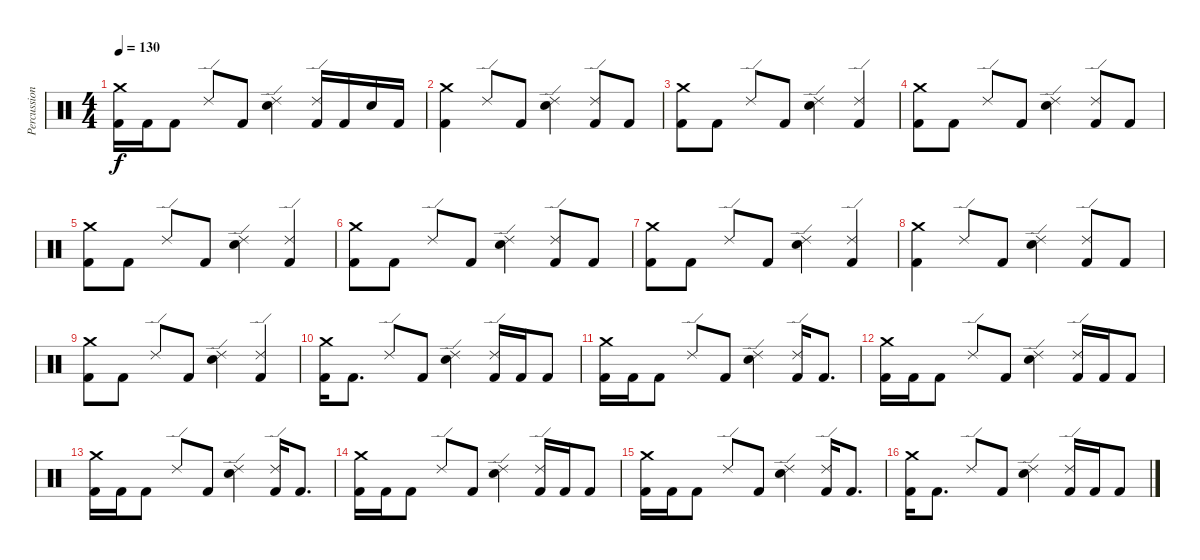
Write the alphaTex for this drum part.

\track ("Percussion" "Percussion") {instrument percussion}
\staff {score}
\articulation defaults
\ts (4 4)
\tempo 130
\clef neutral
\ks c
("Crash medium (hit)" "Kick (hit) 2").16{dy f} "Kick (hit) 2".16 "Kick (hit) 2".8 "Ride (edge) 2".8 "Kick (hit) 2".8 ("Ride (edge) 2" "Electric Snare (hit)").4 ("Ride (edge) 2" "Kick (hit) 2").16 "Kick (hit) 2".16 "Electric Snare (hit)".16 "Kick (hit) 2".16 |
("Crash medium (hit)" "Kick (hit) 2").4 "Ride (edge) 2".8 "Kick (hit) 2".8 ("Ride (edge) 2" "Electric Snare (hit)").4 ("Ride (edge) 2" "Kick (hit) 2").8 "Kick (hit) 2".8 |
("Crash medium (hit)" "Kick (hit) 2").8 "Kick (hit) 2".8 "Ride (edge) 2".8 "Kick (hit) 2".8 ("Ride (edge) 2" "Electric Snare (hit)").4 ("Ride (edge) 2" "Kick (hit) 2").4 |
("Crash medium (hit)" "Kick (hit) 2").8 "Kick (hit) 2".8 "Ride (edge) 2".8 "Kick (hit) 2".8 ("Ride (edge) 2" "Electric Snare (hit)").4 ("Ride (edge) 2" "Kick (hit) 2").8 "Kick (hit) 2".8 |
("Crash medium (hit)" "Kick (hit) 2").8 "Kick (hit) 2".8 "Ride (edge) 2".8 "Kick (hit) 2".8 ("Ride (edge) 2" "Electric Snare (hit)").4 ("Ride (edge) 2" "Kick (hit) 2").4 |
("Crash medium (hit)" "Kick (hit) 2").8 "Kick (hit) 2".8 "Ride (edge) 2".8 "Kick (hit) 2".8 ("Ride (edge) 2" "Electric Snare (hit)").4 ("Ride (edge) 2" "Kick (hit) 2").8 "Kick (hit) 2".8 |
("Crash medium (hit)" "Kick (hit) 2").8 "Kick (hit) 2".8 "Ride (edge) 2".8 "Kick (hit) 2".8 ("Ride (edge) 2" "Electric Snare (hit)").4 ("Ride (edge) 2" "Kick (hit) 2").4 |
("Crash medium (hit)" "Kick (hit) 2").4 "Ride (edge) 2".8 "Kick (hit) 2".8 ("Ride (edge) 2" "Electric Snare (hit)").4 ("Ride (edge) 2" "Kick (hit) 2").8 "Kick (hit) 2".8 |
("Crash medium (hit)" "Kick (hit) 2").8 "Kick (hit) 2".8 "Ride (edge) 2".8 "Kick (hit) 2".8 ("Ride (edge) 2" "Electric Snare (hit)").4 ("Ride (edge) 2" "Kick (hit) 2").4 |
("Crash medium (hit)" "Kick (hit) 2").16 "Kick (hit) 2".8{d} "Ride (edge) 2".8 "Kick (hit) 2".8 ("Ride (edge) 2" "Electric Snare (hit)").4 ("Ride (edge) 2" "Kick (hit) 2").16 "Kick (hit) 2".16 "Kick (hit) 2".8 |
("Crash medium (hit)" "Kick (hit) 2").16 "Kick (hit) 2".16 "Kick (hit) 2".8 "Ride (edge) 2".8 "Kick (hit) 2".8 ("Ride (edge) 2" "Electric Snare (hit)").4 ("Ride (edge) 2" "Kick (hit) 2").16 "Kick (hit) 2".8{d} |
("Crash medium (hit)" "Kick (hit) 2").16 "Kick (hit) 2".16 "Kick (hit) 2".8 "Ride (edge) 2".8 "Kick (hit) 2".8 ("Ride (edge) 2" "Electric Snare (hit)").4 ("Ride (edge) 2" "Kick (hit) 2").16 "Kick (hit) 2".16 "Kick (hit) 2".8 |
("Crash medium (hit)" "Kick (hit) 2").16 "Kick (hit) 2".16 "Kick (hit) 2".8 "Ride (edge) 2".8 "Kick (hit) 2".8 ("Ride (edge) 2" "Electric Snare (hit)").4 ("Ride (edge) 2" "Kick (hit) 2").16 "Kick (hit) 2".8{d} |
("Crash medium (hit)" "Kick (hit) 2").16 "Kick (hit) 2".16 "Kick (hit) 2".8 "Ride (edge) 2".8 "Kick (hit) 2".8 ("Ride (edge) 2" "Electric Snare (hit)").4 ("Ride (edge) 2" "Kick (hit) 2").16 "Kick (hit) 2".16 "Kick (hit) 2".8 |
("Crash medium (hit)" "Kick (hit) 2").16 "Kick (hit) 2".16 "Kick (hit) 2".8 "Ride (edge) 2".8 "Kick (hit) 2".8 ("Ride (edge) 2" "Electric Snare (hit)").4 ("Ride (edge) 2" "Kick (hit) 2").16 "Kick (hit) 2".8{d} |
("Crash medium (hit)" "Kick (hit) 2").16 "Kick (hit) 2".8{d} "Ride (edge) 2".8 "Kick (hit) 2".8 ("Ride (edge) 2" "Electric Snare (hit)").4 ("Ride (edge) 2" "Kick (hit) 2").16 "Kick (hit) 2".16 "Kick (hit) 2".8
